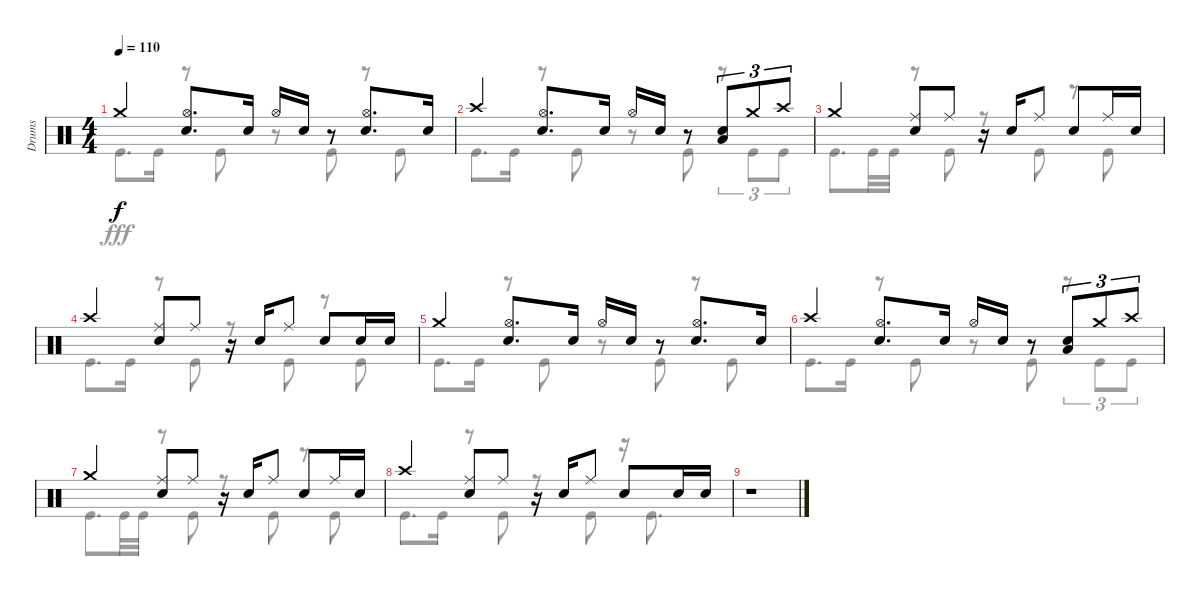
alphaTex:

\track ("Drums" "Drums") {instrument percussion}
\staff {score}
\articulation defaults
\voice
\ts (4 4)
\tempo 110
\clef neutral
\ks c "Crash medium (hit)".4{dy f}
("Hi-Hat (open)" "Snare (hit) 2").8{d} "Snare (hit) 2".16 "Hi-Hat (open)".16 "Snare (hit) 2".16 r.8 ("Hi-Hat (open)" "Snare (hit) 2").8{d} "Snare (hit) 2".16 |
"Crash high (hit)".4 ("Hi-Hat (open)" "Snare (hit) 2").8{d} "Snare (hit) 2".16 "Hi-Hat (open)".16 "Snare (hit) 2".16 r.8 ("Snare (hit) 2" "Low Tom (hit)").8{tu (3 2)} "Crash medium (hit)".8{tu (3 2)} "Crash high (hit)".8{tu (3 2)} |
"Crash medium (hit)".4 ("Ride (middle)" "Snare (hit) 2").8 "Ride (middle)".8 r.16 "Snare (hit) 2".16 "Ride (middle)".8 "Snare (hit) 2".8 "Ride (middle)".16 "Snare (hit) 2".16 |
"Crash high (hit)".4 ("Ride (middle)" "Snare (hit) 2").8 "Ride (middle)".8 r.16 "Snare (hit) 2".16 "Ride (middle)".8 "Snare (hit) 2".8 "Snare (hit) 2".16 "Snare (hit) 2".16 |
"Crash medium (hit)".4 ("Hi-Hat (open)" "Snare (hit) 2").8{d} "Snare (hit) 2".16 "Hi-Hat (open)".16 "Snare (hit) 2".16 r.8 ("Hi-Hat (open)" "Snare (hit) 2").8{d} "Snare (hit) 2".16 |
"Crash high (hit)".4 ("Hi-Hat (open)" "Snare (hit) 2").8{d} "Snare (hit) 2".16 "Hi-Hat (open)".16 "Snare (hit) 2".16 r.8 ("Snare (hit) 2" "Low Tom (hit)").8{tu (3 2)} "Crash medium (hit)".8{tu (3 2)} "Crash high (hit)".8{tu (3 2)} |
"Crash medium (hit)".4 ("Ride (middle)" "Snare (hit) 2").8 "Ride (middle)".8 r.16 "Snare (hit) 2".16 "Ride (middle)".8 "Snare (hit) 2".8 "Ride (middle)".16 "Snare (hit) 2".16 |
"Crash high (hit)".4 ("Ride (middle)" "Snare (hit) 2").8 "Ride (middle)".8 r.16 "Snare (hit) 2".16 "Ride (middle)".8 "Snare (hit) 2".8 "Snare (hit) 2".16 "Snare (hit) 2".16 |
r.1
\voice
\clef neutral
\ottava regular
\simile none
\ks c "Kick (hit)".8{d dy fff} "Kick (hit)".16
r.8 "Kick (hit)".8 r.8 "Kick (hit)".8 r.8 "Kick (hit)".8 |
"Kick (hit)".8{d} "Kick (hit)".16 r.8 "Kick (hit)".8 r.8 "Kick (hit)".8 r.8{tu (3 2)} "Kick (hit)".8{tu (3 2)} "Kick (hit)".8{tu (3 2)} |
"Kick (hit)".8{d} "Kick (hit)".32 "Kick (hit)".32 r.8 "Kick (hit)".8 r.8 "Kick (hit)".8 r.8 "Kick (hit)".8 |
"Kick (hit)".8{d} "Kick (hit)".16 r.8 "Kick (hit)".8 r.8 "Kick (hit)".8 r.8 "Kick (hit)".8 |
"Kick (hit)".8{d} "Kick (hit)".16 r.8 "Kick (hit)".8 r.8 "Kick (hit)".8 r.8 "Kick (hit)".8 |
"Kick (hit)".8{d} "Kick (hit)".16 r.8 "Kick (hit)".8 r.8 "Kick (hit)".8 r.8{tu (3 2)} "Kick (hit)".8{tu (3 2)} "Kick (hit)".8{tu (3 2)} |
"Kick (hit)".8{d} "Kick (hit)".32 "Kick (hit)".32 r.8 "Kick (hit)".8 r.8 "Kick (hit)".8 r.8 "Kick (hit)".8 |
"Kick (hit)".8{d} "Kick (hit)".16 r.8 "Kick (hit)".8 r.8 "Kick (hit)".8 r.16 "Kick (hit)".8{d} |
r.1
